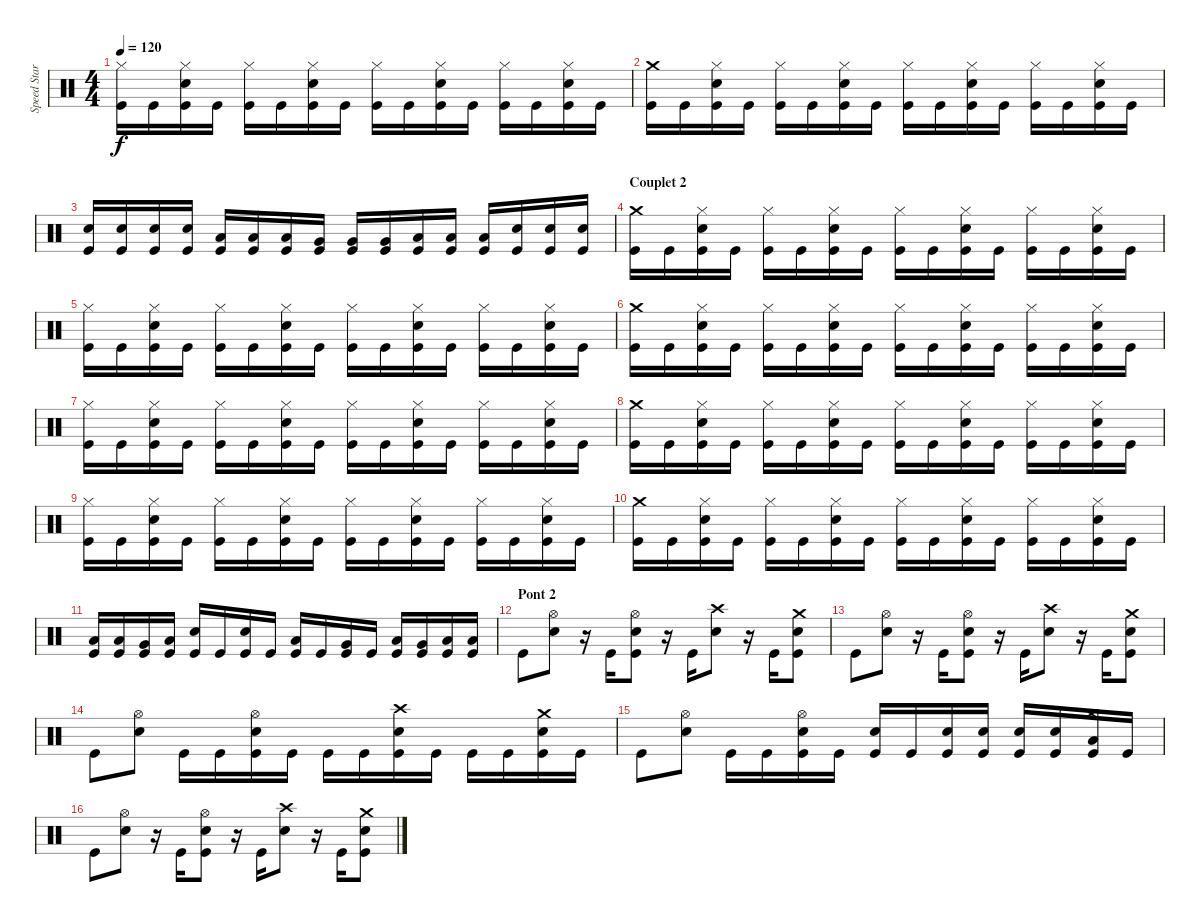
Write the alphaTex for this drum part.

\track ("Speed Star" "Speed Star") {instrument percussion}
\staff {score}
\articulation defaults
\ts (4 4)
\tempo 120
\clef neutral
\ks c
("Kick (hit)" "Hi-Hat (closed)").16{dy f} "Kick (hit)".16 ("Kick (hit)" "Snare (hit) 2" "Hi-Hat (closed)").16 "Kick (hit)".16 ("Kick (hit)" "Hi-Hat (closed)").16 "Kick (hit)".16 ("Kick (hit)" "Snare (hit) 2" "Hi-Hat (closed)").16 "Kick (hit)".16 ("Kick (hit)" "Hi-Hat (closed)").16 "Kick (hit)".16 ("Kick (hit)" "Snare (hit) 2" "Hi-Hat (closed)").16 "Kick (hit)".16 ("Kick (hit)" "Hi-Hat (closed)").16 "Kick (hit)".16 ("Kick (hit)" "Snare (hit) 2" "Hi-Hat (closed)").16 "Kick (hit)".16 |
("Kick (hit)" "Crash medium (hit)").16 "Kick (hit)".16 ("Kick (hit)" "Snare (hit) 2" "Hi-Hat (closed)").16 "Kick (hit)".16 ("Kick (hit)" "Hi-Hat (closed)").16 "Kick (hit)".16 ("Kick (hit)" "Snare (hit) 2" "Hi-Hat (closed)").16 "Kick (hit)".16 ("Kick (hit)" "Hi-Hat (closed)").16 "Kick (hit)".16 ("Kick (hit)" "Snare (hit) 2" "Hi-Hat (closed)").16 "Kick (hit)".16 ("Kick (hit)" "Hi-Hat (closed)").16 "Kick (hit)".16 ("Kick (hit)" "Snare (hit) 2" "Hi-Hat (closed)").16 "Kick (hit)".16 |
("Kick (hit)" "Snare (hit) 2").16 ("Kick (hit)" "Snare (hit) 2").16 ("Kick (hit)" "Snare (hit) 2").16 ("Kick (hit)" "Snare (hit) 2").16 ("Kick (hit)" "Low Floor Tom (hit)").16 ("Kick (hit)" "Low Floor Tom (hit)").16 ("Kick (hit)" "Low Floor Tom (hit)").16 ("Kick (hit)" "Very Low Tom (hit)").16 ("Kick (hit)" "Very Low Tom (hit)").16 ("Kick (hit)" "Very Low Tom (hit)").16 ("Kick (hit)" "Low Tom (hit)").16 ("Kick (hit)" "Low Tom (hit)").16 ("Kick (hit)" "Low Tom (hit)").16 ("Kick (hit)" "Snare (hit) 2").16 ("Kick (hit)" "Snare (hit) 2").16 ("Kick (hit)" "Snare (hit) 2").16 |
\section ("" "Couplet 2")
("Kick (hit)" "Crash medium (hit)").16 "Kick (hit)".16 ("Kick (hit)" "Snare (hit) 2" "Hi-Hat (closed)").16 "Kick (hit)".16 ("Kick (hit)" "Hi-Hat (closed)").16 "Kick (hit)".16 ("Kick (hit)" "Snare (hit) 2" "Hi-Hat (closed)").16 "Kick (hit)".16 ("Kick (hit)" "Hi-Hat (closed)").16 "Kick (hit)".16 ("Kick (hit)" "Snare (hit) 2" "Hi-Hat (closed)").16 "Kick (hit)".16 ("Kick (hit)" "Hi-Hat (closed)").16 "Kick (hit)".16 ("Kick (hit)" "Snare (hit) 2" "Hi-Hat (closed)").16 "Kick (hit)".16 |
("Kick (hit)" "Hi-Hat (closed)").16 "Kick (hit)".16 ("Kick (hit)" "Snare (hit) 2" "Hi-Hat (closed)").16 "Kick (hit)".16 ("Kick (hit)" "Hi-Hat (closed)").16 "Kick (hit)".16 ("Kick (hit)" "Snare (hit) 2" "Hi-Hat (closed)").16 "Kick (hit)".16 ("Kick (hit)" "Hi-Hat (closed)").16 "Kick (hit)".16 ("Kick (hit)" "Snare (hit) 2" "Hi-Hat (closed)").16 "Kick (hit)".16 ("Kick (hit)" "Hi-Hat (closed)").16 "Kick (hit)".16 ("Kick (hit)" "Snare (hit) 2" "Hi-Hat (closed)").16 "Kick (hit)".16 |
("Kick (hit)" "Crash medium (hit)").16 "Kick (hit)".16 ("Kick (hit)" "Snare (hit) 2" "Hi-Hat (closed)").16 "Kick (hit)".16 ("Kick (hit)" "Hi-Hat (closed)").16 "Kick (hit)".16 ("Kick (hit)" "Snare (hit) 2" "Hi-Hat (closed)").16 "Kick (hit)".16 ("Kick (hit)" "Hi-Hat (closed)").16 "Kick (hit)".16 ("Kick (hit)" "Snare (hit) 2" "Hi-Hat (closed)").16 "Kick (hit)".16 ("Kick (hit)" "Hi-Hat (closed)").16 "Kick (hit)".16 ("Kick (hit)" "Snare (hit) 2" "Hi-Hat (closed)").16 "Kick (hit)".16 |
("Kick (hit)" "Hi-Hat (closed)").16 "Kick (hit)".16 ("Kick (hit)" "Snare (hit) 2" "Hi-Hat (closed)").16 "Kick (hit)".16 ("Kick (hit)" "Hi-Hat (closed)").16 "Kick (hit)".16 ("Kick (hit)" "Snare (hit) 2" "Hi-Hat (closed)").16 "Kick (hit)".16 ("Kick (hit)" "Hi-Hat (closed)").16 "Kick (hit)".16 ("Kick (hit)" "Snare (hit) 2" "Hi-Hat (closed)").16 "Kick (hit)".16 ("Kick (hit)" "Hi-Hat (closed)").16 "Kick (hit)".16 ("Kick (hit)" "Snare (hit) 2" "Hi-Hat (closed)").16 "Kick (hit)".16 |
("Kick (hit)" "Crash medium (hit)").16 "Kick (hit)".16 ("Kick (hit)" "Snare (hit) 2" "Hi-Hat (closed)").16 "Kick (hit)".16 ("Kick (hit)" "Hi-Hat (closed)").16 "Kick (hit)".16 ("Kick (hit)" "Snare (hit) 2" "Hi-Hat (closed)").16 "Kick (hit)".16 ("Kick (hit)" "Hi-Hat (closed)").16 "Kick (hit)".16 ("Kick (hit)" "Snare (hit) 2" "Hi-Hat (closed)").16 "Kick (hit)".16 ("Kick (hit)" "Hi-Hat (closed)").16 "Kick (hit)".16 ("Kick (hit)" "Snare (hit) 2" "Hi-Hat (closed)").16 "Kick (hit)".16 |
("Kick (hit)" "Hi-Hat (closed)").16 "Kick (hit)".16 ("Kick (hit)" "Snare (hit) 2" "Hi-Hat (closed)").16 "Kick (hit)".16 ("Kick (hit)" "Hi-Hat (closed)").16 "Kick (hit)".16 ("Kick (hit)" "Snare (hit) 2" "Hi-Hat (closed)").16 "Kick (hit)".16 ("Kick (hit)" "Hi-Hat (closed)").16 "Kick (hit)".16 ("Kick (hit)" "Snare (hit) 2" "Hi-Hat (closed)").16 "Kick (hit)".16 ("Kick (hit)" "Hi-Hat (closed)").16 "Kick (hit)".16 ("Kick (hit)" "Snare (hit) 2" "Hi-Hat (closed)").16 "Kick (hit)".16 |
("Kick (hit)" "Crash medium (hit)").16 "Kick (hit)".16 ("Kick (hit)" "Snare (hit) 2" "Hi-Hat (closed)").16 "Kick (hit)".16 ("Kick (hit)" "Hi-Hat (closed)").16 "Kick (hit)".16 ("Kick (hit)" "Snare (hit) 2" "Hi-Hat (closed)").16 "Kick (hit)".16 ("Kick (hit)" "Hi-Hat (closed)").16 "Kick (hit)".16 ("Kick (hit)" "Snare (hit) 2" "Hi-Hat (closed)").16 "Kick (hit)".16 ("Kick (hit)" "Hi-Hat (closed)").16 "Kick (hit)".16 ("Kick (hit)" "Snare (hit) 2" "Hi-Hat (closed)").16 "Kick (hit)".16 |
("Kick (hit)" "Low Floor Tom (hit)").16 ("Kick (hit)" "Low Tom (hit)").16 ("Kick (hit)" "Very Low Tom (hit)").16 ("Kick (hit)" "Low Floor Tom (hit)").16 ("Kick (hit)" "Snare (hit) 2").16 "Kick (hit)".16 ("Kick (hit)" "Snare (hit) 2").16 "Kick (hit)".16 ("Kick (hit)" "Low Floor Tom (hit)").16 "Kick (hit)".16 ("Kick (hit)" "Very Low Tom (hit)").16 "Kick (hit)".16 ("Kick (hit)" "Low Tom (hit)").16 ("Kick (hit)" "Very Low Tom (hit)").16 ("Kick (hit)" "Low Floor Tom (hit)").16 ("Kick (hit)" "Low Floor Tom (hit)").16 |
\section ("" "Pont 2")
"Kick (hit)".8 ("Snare (hit) 2" "Hi-Hat (open)").8 r.16 "Kick (hit)".16 ("Kick (hit)" "Snare (hit) 2" "Hi-Hat (open)").8 r.16 "Kick (hit)".16 ("Snare (hit) 2" "Crash high (hit)").8 r.16 "Kick (hit)".16 ("Kick (hit)" "Snare (hit) 2" "Crash medium (hit)").8 |
"Kick (hit)".8 ("Snare (hit) 2" "Hi-Hat (open)").8 r.16 "Kick (hit)".16 ("Kick (hit)" "Snare (hit) 2" "Hi-Hat (open)").8 r.16 "Kick (hit)".16 ("Snare (hit) 2" "Crash high (hit)").8 r.16 "Kick (hit)".16 ("Kick (hit)" "Snare (hit) 2" "Crash medium (hit)").8 |
"Kick (hit)".8 ("Snare (hit) 2" "Hi-Hat (open)").8 "Kick (hit)".16 "Kick (hit)".16 ("Kick (hit)" "Snare (hit) 2" "Hi-Hat (open)").16 "Kick (hit)".16 "Kick (hit)".16 "Kick (hit)".16 ("Kick (hit)" "Snare (hit) 2" "Crash high (hit)").16 "Kick (hit)".16 "Kick (hit)".16 "Kick (hit)".16 ("Kick (hit)" "Snare (hit) 2" "Crash medium (hit)").16 "Kick (hit)".16 |
"Kick (hit)".8 ("Snare (hit) 2" "Hi-Hat (open)").8 "Kick (hit)".16 "Kick (hit)".16 ("Kick (hit)" "Snare (hit) 2" "Hi-Hat (open)").16 "Kick (hit)".16 ("Kick (hit)" "Snare (hit) 2").16 "Kick (hit)".16 ("Kick (hit)" "Snare (hit) 2").16 ("Kick (hit)" "Snare (hit) 2").16 ("Kick (hit)" "Snare (hit) 2").16 ("Kick (hit)" "Snare (hit) 2").16 ("Kick (hit)" "Low Floor Tom (hit)" "Crash medium (hit)").16 "Kick (hit)".16 |
"Kick (hit)".8 ("Snare (hit) 2" "Hi-Hat (open)").8 r.16 "Kick (hit)".16 ("Kick (hit)" "Snare (hit) 2" "Hi-Hat (open)").8 r.16 "Kick (hit)".16 ("Snare (hit) 2" "Crash high (hit)").8 r.16 "Kick (hit)".16 ("Kick (hit)" "Snare (hit) 2" "Crash medium (hit)").8
